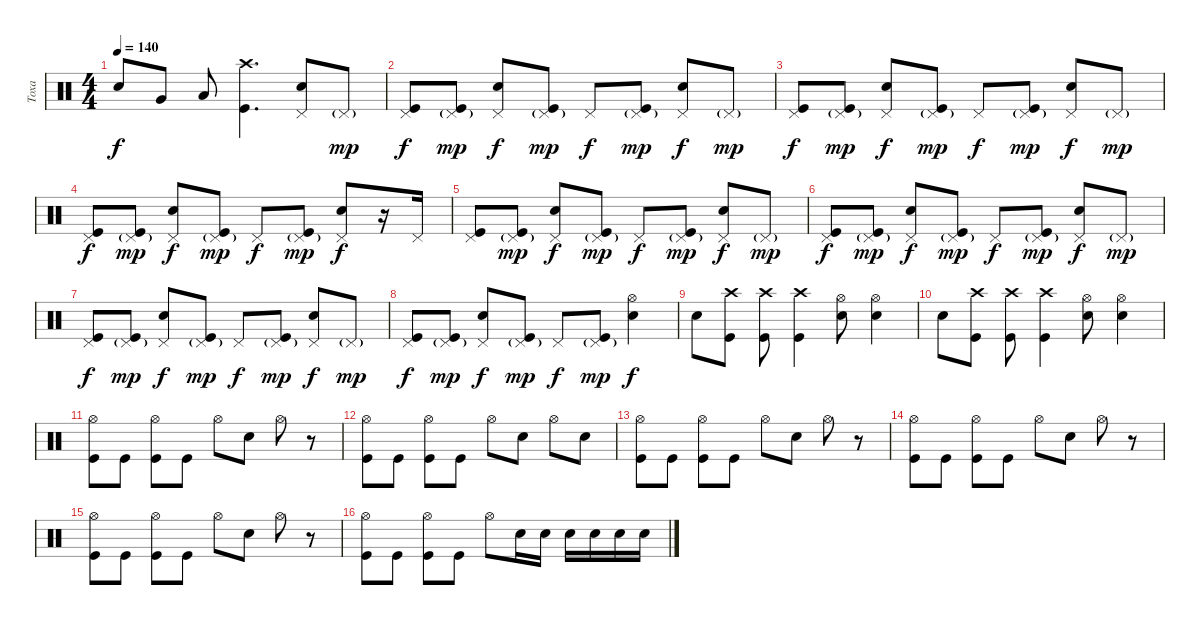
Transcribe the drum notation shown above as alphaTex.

\track ("Тоха" "Тоха") {instrument percussion}
\staff {score}
\articulation defaults
\ts (4 4)
\tempo 140
\clef neutral
\ks c "Snare (hit) 2".8{dy f} "Very Low Tom (hit)".8 "Low Floor Tom (hit)".8
("Kick (hit)" "Crash high (hit)").4{d} ("Snare (hit) 2" "Pedal Hi-Hat (hit)").8 "Pedal Hi-Hat (hit)"{g}.8{dy mp} |
("Kick (hit)" "Pedal Hi-Hat (hit)").8{dy f} ("Kick (hit)" "Pedal Hi-Hat (hit)"{g}).8{dy mp} ("Snare (hit) 2" "Pedal Hi-Hat (hit)").8{dy f} ("Kick (hit)" "Pedal Hi-Hat (hit)"{g}).8{dy mp} "Pedal Hi-Hat (hit)".8{dy f} ("Kick (hit)" "Pedal Hi-Hat (hit)"{g}).8{dy mp} ("Snare (hit) 2" "Pedal Hi-Hat (hit)").8{dy f} "Pedal Hi-Hat (hit)"{g}.8{dy mp} |
("Kick (hit)" "Pedal Hi-Hat (hit)").8{dy f} ("Kick (hit)" "Pedal Hi-Hat (hit)"{g}).8{dy mp} ("Snare (hit) 2" "Pedal Hi-Hat (hit)").8{dy f} ("Kick (hit)" "Pedal Hi-Hat (hit)"{g}).8{dy mp} "Pedal Hi-Hat (hit)".8{dy f} ("Kick (hit)" "Pedal Hi-Hat (hit)"{g}).8{dy mp} ("Snare (hit) 2" "Pedal Hi-Hat (hit)").8{dy f} "Pedal Hi-Hat (hit)"{g}.8{dy mp} |
("Kick (hit)" "Pedal Hi-Hat (hit)").8{dy f} ("Kick (hit)" "Pedal Hi-Hat (hit)"{g}).8{dy mp} ("Snare (hit) 2" "Pedal Hi-Hat (hit)").8{dy f} ("Kick (hit)" "Pedal Hi-Hat (hit)"{g}).8{dy mp} "Pedal Hi-Hat (hit)".8{dy f} ("Kick (hit)" "Pedal Hi-Hat (hit)"{g}).8{dy mp} ("Snare (hit) 2" "Pedal Hi-Hat (hit)").8{dy f} r.16 "Pedal Hi-Hat (hit)".16 |
("Kick (hit)" "Pedal Hi-Hat (hit)").8 ("Kick (hit)" "Pedal Hi-Hat (hit)"{g}).8{dy mp} ("Snare (hit) 2" "Pedal Hi-Hat (hit)").8{dy f} ("Kick (hit)" "Pedal Hi-Hat (hit)"{g}).8{dy mp} "Pedal Hi-Hat (hit)".8{dy f} ("Kick (hit)" "Pedal Hi-Hat (hit)"{g}).8{dy mp} ("Snare (hit) 2" "Pedal Hi-Hat (hit)").8{dy f} "Pedal Hi-Hat (hit)"{g}.8{dy mp} |
("Kick (hit)" "Pedal Hi-Hat (hit)").8{dy f} ("Kick (hit)" "Pedal Hi-Hat (hit)"{g}).8{dy mp} ("Snare (hit) 2" "Pedal Hi-Hat (hit)").8{dy f} ("Kick (hit)" "Pedal Hi-Hat (hit)"{g}).8{dy mp} "Pedal Hi-Hat (hit)".8{dy f} ("Kick (hit)" "Pedal Hi-Hat (hit)"{g}).8{dy mp} ("Snare (hit) 2" "Pedal Hi-Hat (hit)").8{dy f} "Pedal Hi-Hat (hit)"{g}.8{dy mp} |
("Kick (hit)" "Pedal Hi-Hat (hit)").8{dy f} ("Kick (hit)" "Pedal Hi-Hat (hit)"{g}).8{dy mp} ("Snare (hit) 2" "Pedal Hi-Hat (hit)").8{dy f} ("Kick (hit)" "Pedal Hi-Hat (hit)"{g}).8{dy mp} "Pedal Hi-Hat (hit)".8{dy f} ("Kick (hit)" "Pedal Hi-Hat (hit)"{g}).8{dy mp} ("Snare (hit) 2" "Pedal Hi-Hat (hit)").8{dy f} "Pedal Hi-Hat (hit)"{g}.8{dy mp} |
("Kick (hit)" "Pedal Hi-Hat (hit)").8{dy f} ("Kick (hit)" "Pedal Hi-Hat (hit)"{g}).8{dy mp} ("Snare (hit) 2" "Pedal Hi-Hat (hit)").8{dy f} ("Kick (hit)" "Pedal Hi-Hat (hit)"{g}).8{dy mp} "Pedal Hi-Hat (hit)".8{dy f} ("Kick (hit)" "Pedal Hi-Hat (hit)"{g}).8{dy mp} ("Snare (hit) 2" "Hi-Hat (open)").4{dy f} |
"Snare (hit) 2".8 ("Kick (hit)" "Crash high (hit)").8 ("Kick (hit)" "Crash high (hit)").8 ("Kick (hit)" "Crash high (hit)").4 ("Snare (hit) 2" "Hi-Hat (open)").8 ("Snare (hit) 2" "Hi-Hat (open)").4 |
"Snare (hit) 2".8 ("Kick (hit)" "Crash high (hit)").8 ("Kick (hit)" "Crash high (hit)").8 ("Kick (hit)" "Crash high (hit)").4 ("Snare (hit) 2" "Hi-Hat (open)").8 ("Snare (hit) 2" "Hi-Hat (open)").4 |
("Kick (hit)" "Hi-Hat (open)").8 "Kick (hit)".8 ("Kick (hit)" "Hi-Hat (open)").8 "Kick (hit)".8 "Hi-Hat (open)".8 "Snare (hit) 2".8 "Hi-Hat (open)".8 r.8 |
("Kick (hit)" "Hi-Hat (open)").8 "Kick (hit)".8 ("Kick (hit)" "Hi-Hat (open)").8 "Kick (hit)".8 "Hi-Hat (open)".8 "Snare (hit) 2".8 "Hi-Hat (open)".8 "Snare (hit) 2".8 |
("Kick (hit)" "Hi-Hat (open)").8 "Kick (hit)".8 ("Kick (hit)" "Hi-Hat (open)").8 "Kick (hit)".8 "Hi-Hat (open)".8 "Snare (hit) 2".8 "Hi-Hat (open)".8 r.8 |
("Kick (hit)" "Hi-Hat (open)").8 "Kick (hit)".8 ("Kick (hit)" "Hi-Hat (open)").8 "Kick (hit)".8 "Hi-Hat (open)".8 "Snare (hit) 2".8 "Hi-Hat (open)".8 r.8 |
("Kick (hit)" "Hi-Hat (open)").8 "Kick (hit)".8 ("Kick (hit)" "Hi-Hat (open)").8 "Kick (hit)".8 "Hi-Hat (open)".8 "Snare (hit) 2".8 "Hi-Hat (open)".8 r.8 |
("Kick (hit)" "Hi-Hat (open)").8 "Kick (hit)".8 ("Kick (hit)" "Hi-Hat (open)").8 "Kick (hit)".8 "Hi-Hat (open)".8 "Snare (hit) 2".16 "Snare (hit) 2".16 "Snare (hit) 2".16 "Snare (hit) 2".16 "Snare (hit) 2".16 "Snare (hit) 2".16
